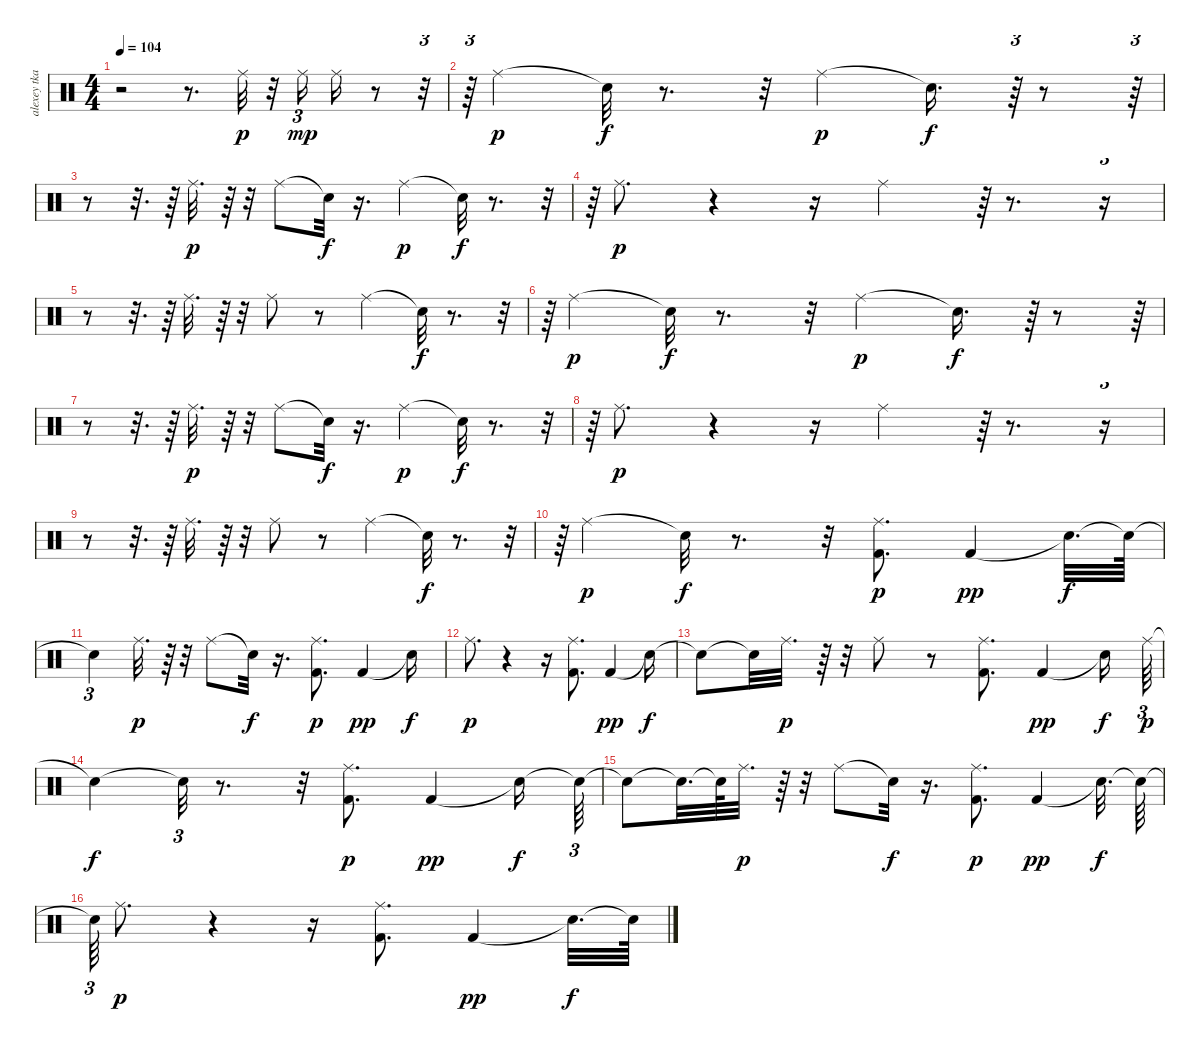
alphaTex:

\track ("alexey tkachevsky" "alexey tka") {instrument percussion}
\staff {score}
\articulation defaults
\ts (4 4)
\tempo 104
\clef neutral
\ks c
r.2{dy f} r.8{d} "Ride (middle)".32{dy p} r.32 "Ride (middle)".16{tu (3 2) dy mp} "Ride (middle)".16 r.8 r.32{tu (3 2)} |
r.64{tu (3 2)} "Ride (middle)".4{dy p} "Snare (hit)"{t}.32{dy f} r.8{d} r.32 "Ride (middle)".4{dy p} "Snare (hit)"{t}.16{d dy f} r.64{tu (3 2)} r.8 r.64{tu (3 2)} |
r.8 r.32{d} r.64 "Ride (middle)".32{d dy p} r.64 r.32 "Ride (middle)".8 "Snare (hit)"{t}.32{dy f} r.16{d} "Ride (middle)".4{dy p} "Snare (hit)"{t}.32{dy f} r.8{d} r.32{tu (3 2)} |
r.64{tu (3 2)} "Ride (middle)".8{d dy p} r.4 r.16 "Ride (middle)".4 r.64{tu (3 2)} r.8{d} r.16{tu (3 2)} |
r.8 r.32{d} r.64 "Ride (middle)".32{d} r.64 r.32 "Ride (middle)".8 r.8 "Ride (middle)".4 "Snare (hit)"{t}.32{dy f} r.8{d} r.32{tu (3 2)} |
r.64{tu (3 2)} "Ride (middle)".4{dy p} "Snare (hit)"{t}.32{dy f} r.8{d} r.32 "Ride (middle)".4{dy p} "Snare (hit)"{t}.16{d dy f} r.64{tu (3 2)} r.8 r.64{tu (3 2)} |
r.8 r.32{d} r.64 "Ride (middle)".32{d dy p} r.64 r.32 "Ride (middle)".8 "Snare (hit)"{t}.32{dy f} r.16{d} "Ride (middle)".4{dy p} "Snare (hit)"{t}.32{dy f} r.8{d} r.32{tu (3 2)} |
r.64{tu (3 2)} "Ride (middle)".8{d dy p} r.4 r.16 "Ride (middle)".4 r.64{tu (3 2)} r.8{d} r.16{tu (3 2)} |
r.8 r.32{d} r.64 "Ride (middle)".32{d} r.64 r.32 "Ride (middle)".8 r.8 "Ride (middle)".4 "Snare (hit)"{t}.32{dy f} r.8{d} r.32{tu (3 2)} |
r.64{tu (3 2)} "Ride (middle)".4{dy p} "Snare (hit)"{t}.32{dy f} r.8{d} r.32 ("Kick (hit) 2" "Ride (middle)").8{d dy p} "Kick (hit) 2".4{dy pp} "Snare (hit)"{t}.32{d dy f} "Snare (hit)"{t}.64 |
"Snare (hit)"{t}.4{tu (3 2)} "Ride (middle)".32{d dy p} r.64 r.32 "Ride (middle)".8 "Snare (hit)"{t}.32{dy f} r.16{d} ("Kick (hit) 2" "Ride (middle)").8{d dy p} "Kick (hit) 2".4{dy pp} "Snare (hit)"{t}.16{dy f} |
"Ride (middle)".8{d dy p} r.4 r.16 ("Kick (hit) 2" "Ride (middle)").8{d} "Kick (hit) 2".4{dy pp} "Snare (hit)"{t}.16{dy f} |
"Snare (hit)"{t}.8 "Snare (hit)"{t}.32 "Ride (middle)".32{d dy p} r.64 r.32 "Ride (middle)".8 r.8 ("Kick (hit) 2" "Ride (middle)").8{d} "Kick (hit) 2".4{dy pp} "Snare (hit)"{t}.16{dy f} "Ride (middle)".64{tu (3 2) dy p} |
"Snare (hit)"{t}.4{dy f} "Snare (hit)"{t}.32{tu (3 2)} r.8{d} r.32 ("Kick (hit) 2" "Ride (middle)").8{d dy p} "Kick (hit) 2".4{dy pp} "Snare (hit)"{t}.16{dy f} "Snare (hit)"{t}.64{tu (3 2)} |
"Snare (hit)"{t}.8 "Snare (hit)"{t}.32{d} "Snare (hit)"{t}.64 "Ride (middle)".32{d dy p} r.64 r.32 "Ride (middle)".8 "Snare (hit)"{t}.32{dy f} r.16{d} ("Kick (hit) 2" "Ride (middle)").8{d dy p} "Kick (hit) 2".4{dy pp} "Snare (hit)"{t}.32{d dy f} "Snare (hit)"{t}.64 |
"Snare (hit)"{t}.64{tu (3 2)} "Ride (middle)".8{d dy p} r.4 r.16 ("Kick (hit) 2" "Ride (middle)").8{d} "Kick (hit) 2".4{dy pp} "Snare (hit)"{t}.32{d dy f} "Snare (hit)"{t}.64
